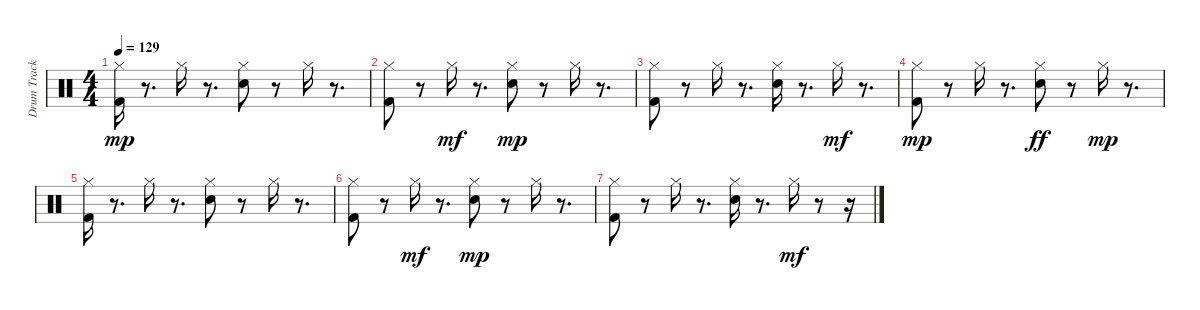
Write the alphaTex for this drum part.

\track ("Drum Track 1" "Drum Track") {instrument percussion}
\staff {score}
\articulation defaults
\ts (4 4)
\tempo 129
\clef neutral
\ks c
("Kick (hit) 2" "Hi-Hat (closed)").16{dy mp} r.8{d} "Hi-Hat (closed)".16 r.8{d} ("Snare (hit) 2" "Hi-Hat (closed)").8 r.8 "Hi-Hat (closed)".16{volume 13} r.8{d} |
("Kick (hit) 2" "Hi-Hat (closed)").8{volume 13} r.8 "Hi-Hat (closed)".16{dy mf volume 13} r.8{d} ("Hi-Hat (closed)" "Snare (hit) 2").8{dy mp volume 12} r.8 "Hi-Hat (closed)".16{volume 12} r.8{d} |
("Hi-Hat (closed)" "Kick (hit) 2").8{volume 11} r.8 "Hi-Hat (closed)".16{volume 11} r.8{d} ("Hi-Hat (closed)" "Snare (hit) 2").16{volume 10} r.8{d} "Hi-Hat (closed)".16{dy mf volume 10} r.8{d} |
("Kick (hit) 2" "Hi-Hat (closed)").8{dy mp volume 9} r.8 "Hi-Hat (closed)".16{volume 9} r.8{d} ("Hi-Hat (closed)" "Snare (hit) 2").8{dy ff volume 8} r.8 "Hi-Hat (closed)".16{dy mp volume 7} r.8{d} |
("Kick (hit) 2" "Hi-Hat (closed)").16{volume 7} r.8{d} "Hi-Hat (closed)".16{volume 6} r.8{d} ("Snare (hit) 2" "Hi-Hat (closed)").8{volume 5} r.8 "Hi-Hat (closed)".16{volume 4} r.8{d} |
("Kick (hit) 2" "Hi-Hat (closed)").8{volume 3} r.8 "Hi-Hat (closed)".16{dy mf volume 1} r.8{d} ("Hi-Hat (closed)" "Snare (hit) 2").8{dy mp volume 0} r.8 "Hi-Hat (closed)".16 r.8{d} |
("Hi-Hat (closed)" "Kick (hit) 2").8 r.8 "Hi-Hat (closed)".16 r.8{d} ("Hi-Hat (closed)" "Snare (hit) 2").16 r.8{d} "Hi-Hat (closed)".16{dy mf} r.8 r.16
